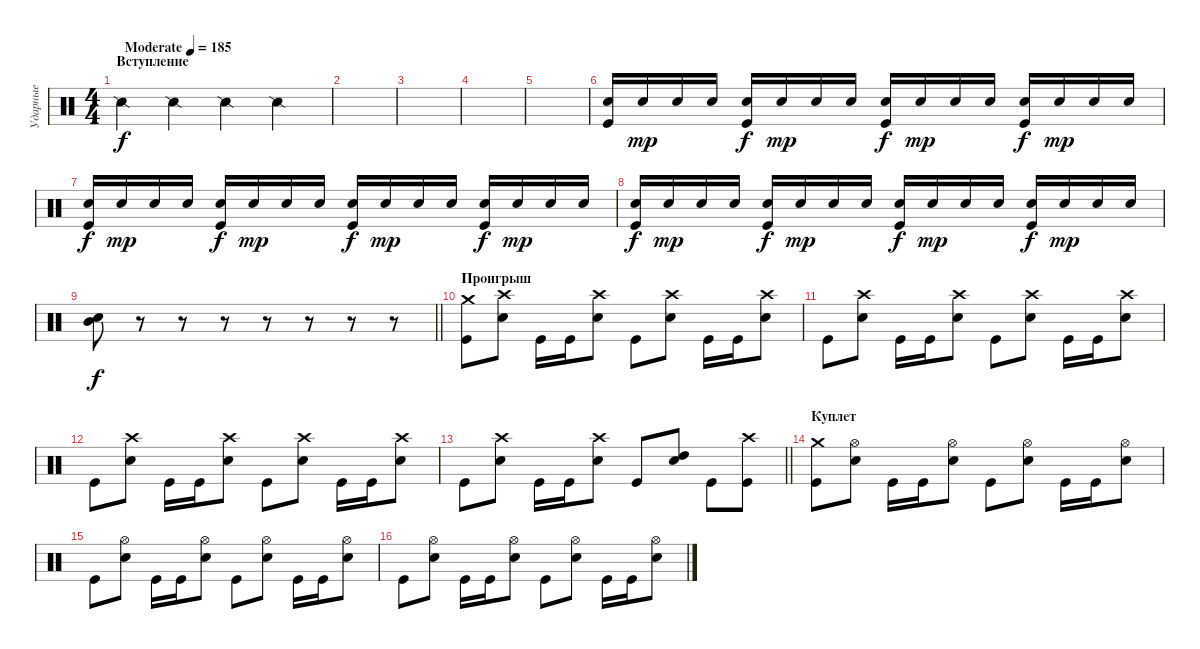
\track ("Ударные" "Ударные") {instrument percussion}
\staff {score}
\articulation defaults
\ts (4 4)
\section ("" "Вступление")
\tempo (185 "Moderate")
\clef neutral
\ks c "Snare (side stick) 2".4{dy f} "Snare (side stick) 2".4 "Snare (side stick) 2".4 "Snare (side stick) 2".4
|
|
|
|
|
("Electric Snare (hit)" "Kick (hit)").16 "Electric Snare (hit)".16{dy mp} "Electric Snare (hit)".16 "Electric Snare (hit)".16 ("Electric Snare (hit)" "Kick (hit)").16{dy f} "Electric Snare (hit)".16{dy mp} "Electric Snare (hit)".16 "Electric Snare (hit)".16 ("Electric Snare (hit)" "Kick (hit)").16{dy f} "Electric Snare (hit)".16{dy mp} "Electric Snare (hit)".16 "Electric Snare (hit)".16 ("Electric Snare (hit)" "Kick (hit)").16{dy f} "Electric Snare (hit)".16{dy mp} "Electric Snare (hit)".16 "Electric Snare (hit)".16 |
("Electric Snare (hit)" "Kick (hit)").16{dy f} "Electric Snare (hit)".16{dy mp} "Electric Snare (hit)".16 "Electric Snare (hit)".16 ("Electric Snare (hit)" "Kick (hit)").16{dy f} "Electric Snare (hit)".16{dy mp} "Electric Snare (hit)".16 "Electric Snare (hit)".16 ("Electric Snare (hit)" "Kick (hit)").16{dy f} "Electric Snare (hit)".16{dy mp} "Electric Snare (hit)".16 "Electric Snare (hit)".16 ("Electric Snare (hit)" "Kick (hit)").16{dy f} "Electric Snare (hit)".16{dy mp} "Electric Snare (hit)".16 "Electric Snare (hit)".16 |
("Electric Snare (hit)" "Kick (hit)").16{dy f} "Electric Snare (hit)".16{dy mp} "Electric Snare (hit)".16 "Electric Snare (hit)".16 ("Electric Snare (hit)" "Kick (hit)").16{dy f} "Electric Snare (hit)".16{dy mp} "Electric Snare (hit)".16 "Electric Snare (hit)".16 ("Electric Snare (hit)" "Kick (hit)").16{dy f} "Electric Snare (hit)".16{dy mp} "Electric Snare (hit)".16 "Electric Snare (hit)".16 ("Electric Snare (hit)" "Kick (hit)").16{dy f} "Electric Snare (hit)".16{dy mp} "Electric Snare (hit)".16 "Electric Snare (hit)".16 |
\barLineRight lightlight
("Mid Tom (hit)" "Electric Snare (hit)").8{dy f} r.8 r.8 r.8 r.8 r.8 r.8 r.8 |
\section ("" "Проигрыш")
("Crash medium (hit)" "Kick (hit)").8 ("Crash high (hit)" "Electric Snare (hit)").8 "Kick (hit)".16 "Kick (hit)".16 ("Crash high (hit)" "Electric Snare (hit)").8 "Kick (hit)".8 ("Crash high (hit)" "Electric Snare (hit)").8 "Kick (hit)".16 "Kick (hit)".16 ("Crash high (hit)" "Electric Snare (hit)").8 |
"Kick (hit)".8 ("Crash high (hit)" "Electric Snare (hit)").8 "Kick (hit)".16 "Kick (hit)".16 ("Crash high (hit)" "Electric Snare (hit)").8 "Kick (hit)".8 ("Crash high (hit)" "Electric Snare (hit)").8 "Kick (hit)".16 "Kick (hit)".16 ("Crash high (hit)" "Electric Snare (hit)").8 |
"Kick (hit)".8 ("Crash high (hit)" "Electric Snare (hit)").8 "Kick (hit)".16 "Kick (hit)".16 ("Crash high (hit)" "Electric Snare (hit)").8 "Kick (hit)".8 ("Crash high (hit)" "Electric Snare (hit)").8 "Kick (hit)".16 "Kick (hit)".16 ("Crash high (hit)" "Electric Snare (hit)").8 |
\barLineRight lightlight "Kick (hit)".8
("Crash high (hit)" "Electric Snare (hit)").8 "Kick (hit)".16 "Kick (hit)".16 ("Crash high (hit)" "Electric Snare (hit)").8 "Kick (hit)".8 ("High Tom (hit)" "Electric Snare (hit)").8 "Kick (hit)".8 ("Crash high (hit)" "Kick (hit)").8 |
\section ("" "Куплет")
("Crash medium (hit)" "Kick (hit)").8 ("Hi-Hat (open)" "Electric Snare (hit)").8 "Kick (hit)".16 "Kick (hit)".16 ("Hi-Hat (open)" "Electric Snare (hit)").8 "Kick (hit)".8 ("Hi-Hat (open)" "Electric Snare (hit)").8 "Kick (hit)".16 "Kick (hit)".16 ("Hi-Hat (open)" "Electric Snare (hit)").8 |
"Kick (hit)".8 ("Hi-Hat (open)" "Electric Snare (hit)").8 "Kick (hit)".16 "Kick (hit)".16 ("Hi-Hat (open)" "Electric Snare (hit)").8 "Kick (hit)".8 ("Hi-Hat (open)" "Electric Snare (hit)").8 "Kick (hit)".16 "Kick (hit)".16 ("Hi-Hat (open)" "Electric Snare (hit)").8 |
"Kick (hit)".8 ("Hi-Hat (open)" "Electric Snare (hit)").8 "Kick (hit)".16 "Kick (hit)".16 ("Hi-Hat (open)" "Electric Snare (hit)").8 "Kick (hit)".8 ("Hi-Hat (open)" "Electric Snare (hit)").8 "Kick (hit)".16 "Kick (hit)".16 ("Hi-Hat (open)" "Electric Snare (hit)").8
